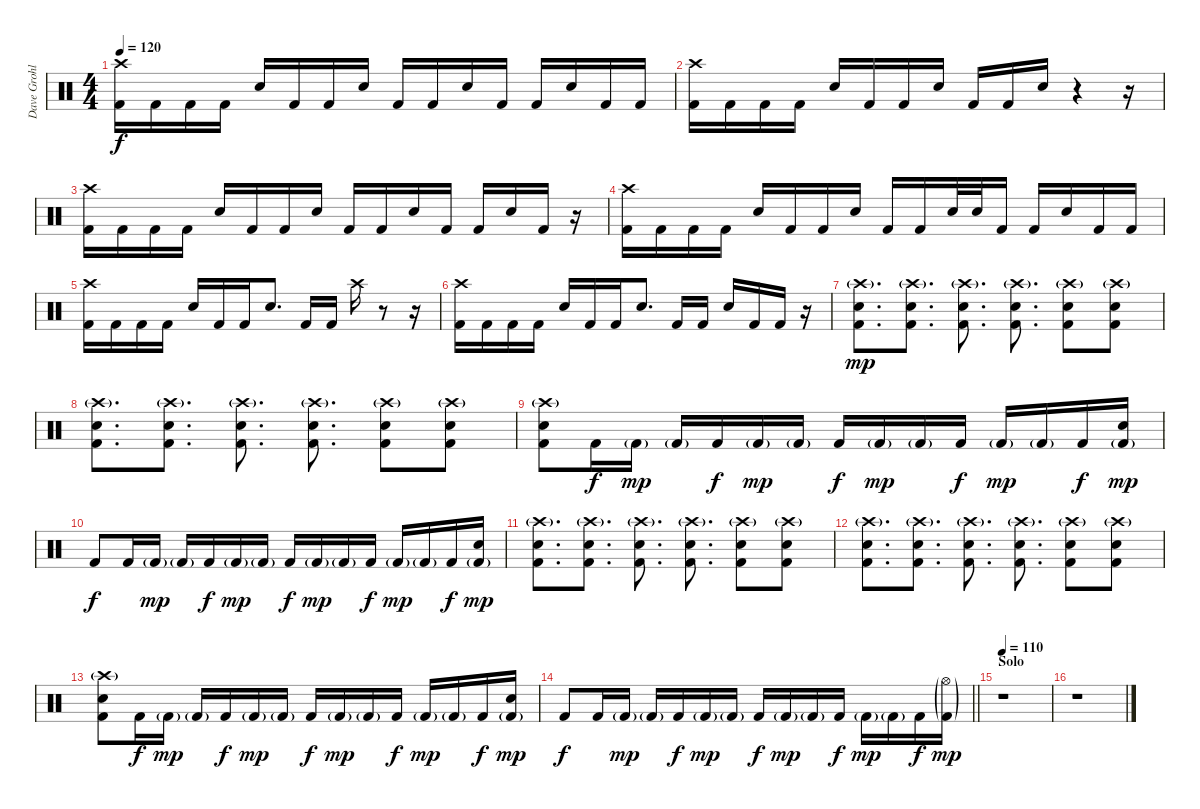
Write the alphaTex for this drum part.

\track ("Dave Grohl" "Dave Grohl") {instrument percussion}
\staff {score}
\articulation defaults
\ts (4 4)
\tempo 120
\clef neutral
\ks c
("Crash high (hit)" "Kick (hit) 2").16{dy f} "Kick (hit) 2".16 "Kick (hit) 2".16 "Kick (hit) 2".16 "Snare (hit) 2".16 "Kick (hit) 2".16 "Kick (hit) 2".16 "Snare (hit) 2".16 "Kick (hit) 2".16 "Kick (hit) 2".16 "Snare (hit) 2".16 "Kick (hit) 2".16 "Kick (hit) 2".16 "Snare (hit) 2".16 "Kick (hit) 2".16 "Kick (hit) 2".16 |
("Crash high (hit)" "Kick (hit) 2").16 "Kick (hit) 2".16 "Kick (hit) 2".16 "Kick (hit) 2".16 "Snare (hit) 2".16 "Kick (hit) 2".16 "Kick (hit) 2".16 "Snare (hit) 2".16 "Kick (hit) 2".16 "Kick (hit) 2".16 "Snare (hit) 2".16 r.4 r.16 |
("Crash high (hit)" "Kick (hit) 2").16 "Kick (hit) 2".16 "Kick (hit) 2".16 "Kick (hit) 2".16 "Snare (hit) 2".16 "Kick (hit) 2".16 "Kick (hit) 2".16 "Snare (hit) 2".16 "Kick (hit) 2".16 "Kick (hit) 2".16 "Snare (hit) 2".16 "Kick (hit) 2".16 "Kick (hit) 2".16 "Snare (hit) 2".16 "Kick (hit) 2".16 r.16 |
("Crash high (hit)" "Kick (hit) 2").16 "Kick (hit) 2".16 "Kick (hit) 2".16 "Kick (hit) 2".16 "Snare (hit) 2".16 "Kick (hit) 2".16 "Kick (hit) 2".16 "Snare (hit) 2".16 "Kick (hit) 2".16 "Kick (hit) 2".16 "Snare (hit) 2".32 "Snare (hit) 2".32 "Kick (hit) 2".16 "Kick (hit) 2".16 "Snare (hit) 2".16 "Kick (hit) 2".16 "Kick (hit) 2".16 |
("Crash high (hit)" "Kick (hit) 2").16 "Kick (hit) 2".16 "Kick (hit) 2".16 "Kick (hit) 2".16 "Snare (hit) 2".16 "Kick (hit) 2".16 "Kick (hit) 2".16 "Snare (hit) 2".8{d} "Kick (hit) 2".16 "Kick (hit) 2".16 "Crash high (hit)".16 r.8 r.16 |
("Crash high (hit)" "Kick (hit) 2").16 "Kick (hit) 2".16 "Kick (hit) 2".16 "Kick (hit) 2".16 "Snare (hit) 2".16 "Kick (hit) 2".16 "Kick (hit) 2".16 "Snare (hit) 2".8{d} "Kick (hit) 2".16 "Kick (hit) 2".16 "Snare (hit) 2".16 "Kick (hit) 2".16 "Kick (hit) 2".16 r.16 |
("Crash high (hit)"{g} "Snare (hit) 2" "Kick (hit) 2").8{d dy mp} ("Crash high (hit)"{g} "Snare (hit) 2" "Kick (hit) 2").8{d} ("Crash high (hit)"{g} "Snare (hit) 2" "Kick (hit) 2").8{d} ("Crash high (hit)"{g} "Snare (hit) 2" "Kick (hit) 2").8{d} ("Crash high (hit)"{g} "Snare (hit) 2" "Kick (hit) 2").8 ("Crash high (hit)"{g} "Snare (hit) 2" "Kick (hit) 2").8 |
("Crash high (hit)"{g} "Snare (hit) 2" "Kick (hit) 2").8{d} ("Crash high (hit)"{g} "Snare (hit) 2" "Kick (hit) 2").8{d} ("Crash high (hit)"{g} "Snare (hit) 2" "Kick (hit) 2").8{d} ("Crash high (hit)"{g} "Snare (hit) 2" "Kick (hit) 2").8{d} ("Crash high (hit)"{g} "Snare (hit) 2" "Kick (hit) 2").8 ("Crash high (hit)"{g} "Snare (hit) 2" "Kick (hit) 2").8 |
("Crash high (hit)"{g} "Snare (hit) 2" "Kick (hit) 2").8 "Kick (hit) 2".16{dy f} "Kick (hit) 2"{g}.16{dy mp} "Kick (hit) 2"{g}.16 "Kick (hit) 2".16{dy f} "Kick (hit) 2"{g}.16{dy mp} "Kick (hit) 2"{g}.16 "Kick (hit) 2".16{dy f} "Kick (hit) 2"{g}.16{dy mp} "Kick (hit) 2"{g}.16 "Kick (hit) 2".16{dy f} "Kick (hit) 2"{g}.16{dy mp} "Kick (hit) 2"{g}.16 "Kick (hit) 2".16{dy f} ("Snare (hit) 2" "Kick (hit) 2"{g}).16{dy mp} |
"Kick (hit) 2".8{dy f} "Kick (hit) 2".16 "Kick (hit) 2"{g}.16{dy mp} "Kick (hit) 2"{g}.16 "Kick (hit) 2".16{dy f} "Kick (hit) 2"{g}.16{dy mp} "Kick (hit) 2"{g}.16 "Kick (hit) 2".16{dy f} "Kick (hit) 2"{g}.16{dy mp} "Kick (hit) 2"{g}.16 "Kick (hit) 2".16{dy f} "Kick (hit) 2"{g}.16{dy mp} "Kick (hit) 2"{g}.16 "Kick (hit) 2".16{dy f} ("Snare (hit) 2" "Kick (hit) 2"{g}).16{dy mp} |
("Crash high (hit)"{g} "Snare (hit) 2" "Kick (hit) 2").8{d} ("Crash high (hit)"{g} "Snare (hit) 2" "Kick (hit) 2").8{d} ("Crash high (hit)"{g} "Snare (hit) 2" "Kick (hit) 2").8{d} ("Crash high (hit)"{g} "Snare (hit) 2" "Kick (hit) 2").8{d} ("Crash high (hit)"{g} "Snare (hit) 2" "Kick (hit) 2").8 ("Crash high (hit)"{g} "Snare (hit) 2" "Kick (hit) 2").8 |
("Crash high (hit)"{g} "Snare (hit) 2" "Kick (hit) 2").8{d} ("Crash high (hit)"{g} "Snare (hit) 2" "Kick (hit) 2").8{d} ("Crash high (hit)"{g} "Snare (hit) 2" "Kick (hit) 2").8{d} ("Crash high (hit)"{g} "Snare (hit) 2" "Kick (hit) 2").8{d} ("Crash high (hit)"{g} "Snare (hit) 2" "Kick (hit) 2").8 ("Crash high (hit)"{g} "Snare (hit) 2" "Kick (hit) 2").8 |
("Crash high (hit)"{g} "Snare (hit) 2" "Kick (hit) 2").8 "Kick (hit) 2".16{dy f} "Kick (hit) 2"{g}.16{dy mp} "Kick (hit) 2"{g}.16 "Kick (hit) 2".16{dy f} "Kick (hit) 2"{g}.16{dy mp} "Kick (hit) 2"{g}.16 "Kick (hit) 2".16{dy f} "Kick (hit) 2"{g}.16{dy mp} "Kick (hit) 2"{g}.16 "Kick (hit) 2".16{dy f} "Kick (hit) 2"{g}.16{dy mp} "Kick (hit) 2"{g}.16 "Kick (hit) 2".16{dy f} ("Snare (hit) 2" "Kick (hit) 2"{g}).16{dy mp} |
\barLineRight lightlight "Kick (hit) 2".8{dy f} "Kick (hit) 2".16 "Kick (hit) 2"{g}.16{dy mp} "Kick (hit) 2"{g}.16 "Kick (hit) 2".16{dy f} "Kick (hit) 2"{g}.16{dy mp} "Kick (hit) 2"{g}.16 "Kick (hit) 2".16{dy f} "Kick (hit) 2"{g}.16{dy mp} "Kick (hit) 2"{g}.16 "Kick (hit) 2".16{dy f} "Kick (hit) 2"{g}.16{dy mp} "Kick (hit) 2"{g}.16 "Kick (hit) 2".16{dy f}
("Hi-Hat (open)"{g} "Kick (hit) 2"{g}).16{dy mp} |
\section ("" "Solo")
\tempo 110
r.1 |
r.1
